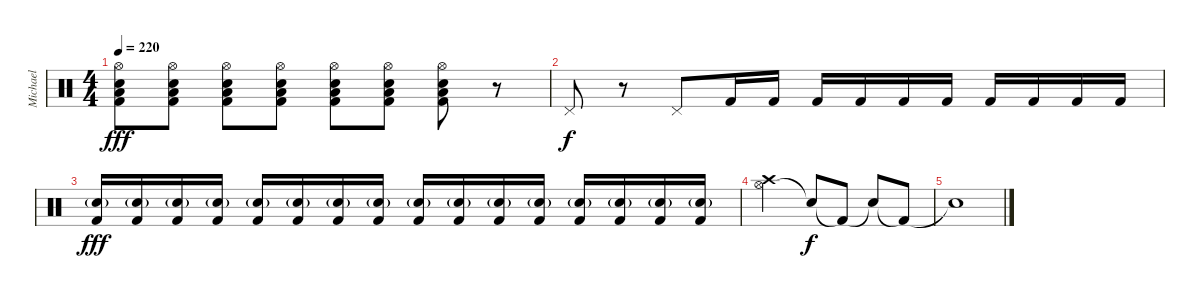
\track ("Michael" "Michael") {instrument percussion}
\staff {score}
\articulation defaults
\ts (4 4)
\tempo 220
\clef neutral
\ks c
("Hi-Hat (open)" "Low Floor Tom (hit)" "Electric Snare (hit)" "Kick (hit) 2").8{dy fff} ("Hi-Hat (open)" "Low Floor Tom (hit)" "Electric Snare (hit)" "Kick (hit) 2").8 ("Hi-Hat (open)" "Low Floor Tom (hit)" "Electric Snare (hit)" "Kick (hit) 2").8 ("Hi-Hat (open)" "Low Floor Tom (hit)" "Electric Snare (hit)" "Kick (hit) 2").8 ("Hi-Hat (open)" "Low Floor Tom (hit)" "Electric Snare (hit)" "Kick (hit) 2").8 ("Hi-Hat (open)" "Low Floor Tom (hit)" "Electric Snare (hit)" "Kick (hit) 2").8 ("Hi-Hat (open)" "Low Floor Tom (hit)" "Electric Snare (hit)" "Kick (hit) 2").8 r.8 |
"Pedal Hi-Hat (hit)".8{dy f} r.8 "Pedal Hi-Hat (hit)".8 "Kick (hit) 2".16 "Kick (hit) 2".16 "Kick (hit) 2".16 "Kick (hit) 2".16 "Kick (hit) 2".16 "Kick (hit) 2".16 "Kick (hit) 2".16 "Kick (hit) 2".16 "Kick (hit) 2".16 "Kick (hit) 2".16 |
("Snare (hit) 2"{g} "Kick (hit) 2").16{dy fff} ("Snare (hit) 2"{g} "Kick (hit) 2").16 ("Snare (hit) 2"{g} "Kick (hit) 2").16 ("Snare (hit) 2"{g} "Kick (hit) 2").16 ("Snare (hit) 2"{g} "Kick (hit) 2").16 ("Snare (hit) 2"{g} "Kick (hit) 2").16 ("Snare (hit) 2"{g} "Kick (hit) 2").16 ("Snare (hit) 2"{g} "Kick (hit) 2").16 ("Snare (hit) 2"{g} "Kick (hit) 2").16 ("Snare (hit) 2"{g} "Kick (hit) 2").16 ("Snare (hit) 2"{g} "Kick (hit) 2").16 ("Snare (hit) 2"{g} "Kick (hit) 2").16 ("Snare (hit) 2"{g} "Kick (hit) 2").16 ("Snare (hit) 2"{g} "Kick (hit) 2").16 ("Snare (hit) 2"{g} "Kick (hit) 2").16 ("Snare (hit) 2"{g} "Kick (hit) 2").16 |
("Hi-Hat (open)" "Crash high (hit)").2 "Snare (hit)"{t}.8{dy f} "Kick (hit) 2"{t}.8 "Electric Snare (hit)"{t}.8 "Kick (hit) 2"{t}.8 |
"Snare (hit)"{t}.1
